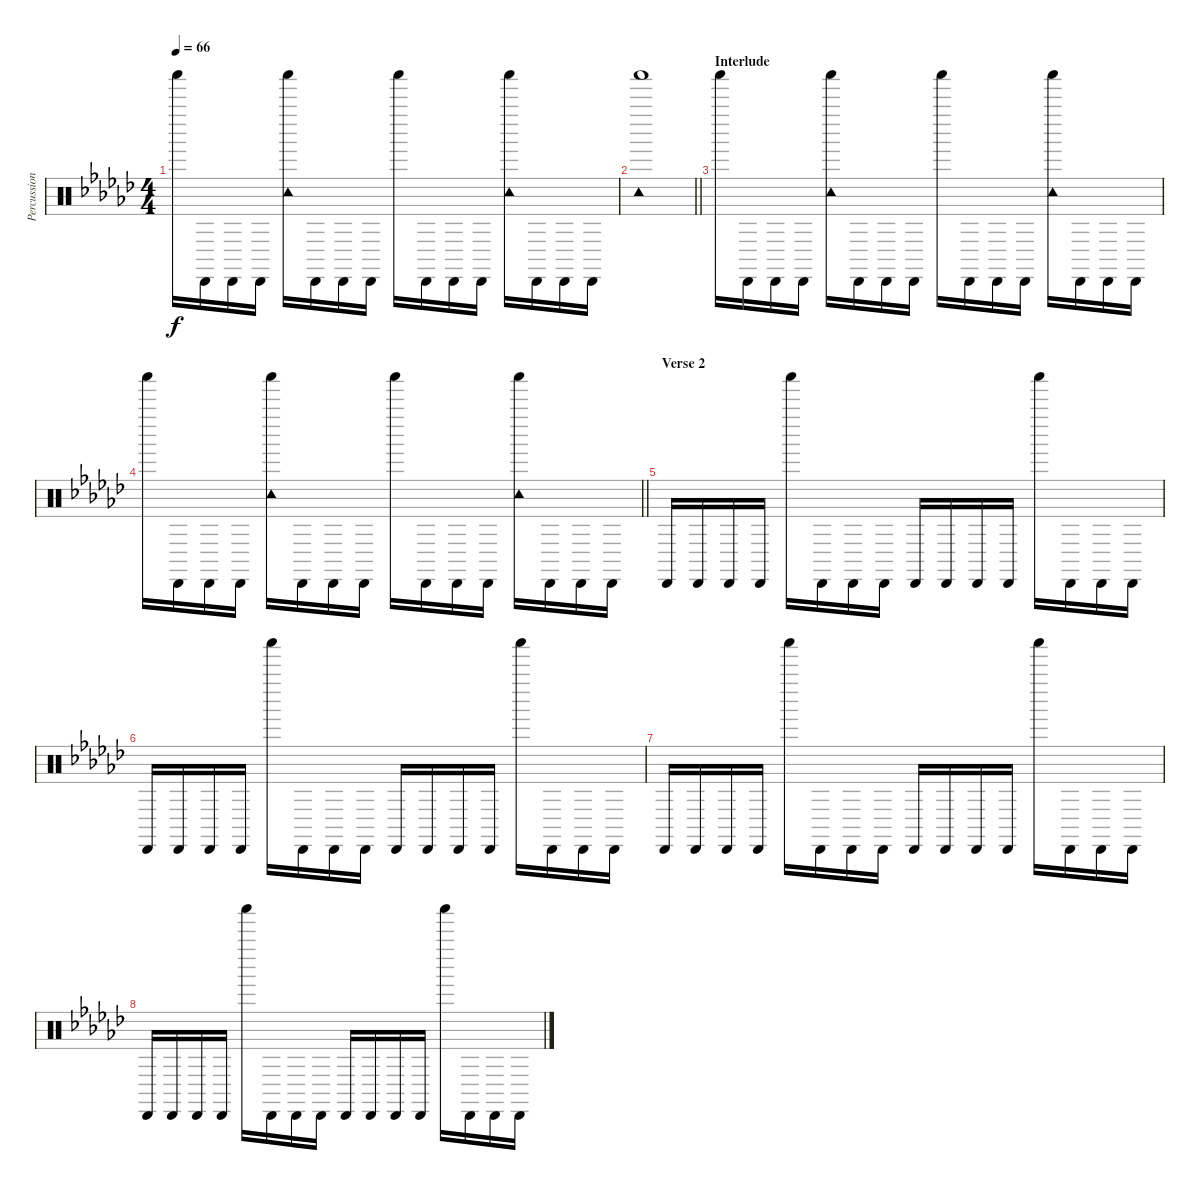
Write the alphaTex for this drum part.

\track ("Percussion" "Percussion") {instrument percussion}
\staff {score}
\articulation defaults
\ts (4 4)
\tempo 66
\clef neutral
\ks gb "Shaker (hit)".16{dy f} "Cabasa (hit)".16 "Cabasa (hit)".16 "Cabasa (hit)".16
("Shaker (hit)" "Tambourine (hit)").16 "Cabasa (hit)".16 "Cabasa (hit)".16 "Cabasa (hit)".16 "Shaker (hit)".16 "Cabasa (hit)".16 "Cabasa (hit)".16 "Cabasa (hit)".16 ("Shaker (hit)" "Tambourine (hit)").16 "Cabasa (hit)".16 "Cabasa (hit)".16 "Cabasa (hit)".16 |
\barLineRight lightlight
("Shaker (hit)" "Tambourine (hit)").1 |
\section ("" "Interlude")
"Shaker (hit)".16 "Cabasa (hit)".16 "Cabasa (hit)".16 "Cabasa (hit)".16 ("Shaker (hit)" "Tambourine (hit)").16 "Cabasa (hit)".16 "Cabasa (hit)".16 "Cabasa (hit)".16 "Shaker (hit)".16 "Cabasa (hit)".16 "Cabasa (hit)".16 "Cabasa (hit)".16 ("Shaker (hit)" "Tambourine (hit)").16 "Cabasa (hit)".16 "Cabasa (hit)".16 "Cabasa (hit)".16 |
\barLineRight lightlight "Shaker (hit)".16 "Cabasa (hit)".16 "Cabasa (hit)".16 "Cabasa (hit)".16
("Shaker (hit)" "Tambourine (hit)").16 "Cabasa (hit)".16 "Cabasa (hit)".16 "Cabasa (hit)".16 "Shaker (hit)".16 "Cabasa (hit)".16 "Cabasa (hit)".16 "Cabasa (hit)".16 ("Shaker (hit)" "Tambourine (hit)").16 "Cabasa (hit)".16 "Cabasa (hit)".16 "Cabasa (hit)".16 |
\section ("" "Verse 2")
"Cabasa (hit)".16 "Cabasa (hit)".16 "Cabasa (hit)".16 "Cabasa (hit)".16 "Shaker (hit)".16 "Cabasa (hit)".16 "Cabasa (hit)".16 "Cabasa (hit)".16 "Cabasa (hit)".16 "Cabasa (hit)".16 "Cabasa (hit)".16 "Cabasa (hit)".16 "Shaker (hit)".16 "Cabasa (hit)".16 "Cabasa (hit)".16 "Cabasa (hit)".16 |
"Cabasa (hit)".16 "Cabasa (hit)".16 "Cabasa (hit)".16 "Cabasa (hit)".16 "Shaker (hit)".16 "Cabasa (hit)".16 "Cabasa (hit)".16 "Cabasa (hit)".16 "Cabasa (hit)".16 "Cabasa (hit)".16 "Cabasa (hit)".16 "Cabasa (hit)".16 "Shaker (hit)".16 "Cabasa (hit)".16 "Cabasa (hit)".16 "Cabasa (hit)".16 |
"Cabasa (hit)".16 "Cabasa (hit)".16 "Cabasa (hit)".16 "Cabasa (hit)".16 "Shaker (hit)".16 "Cabasa (hit)".16 "Cabasa (hit)".16 "Cabasa (hit)".16 "Cabasa (hit)".16 "Cabasa (hit)".16 "Cabasa (hit)".16 "Cabasa (hit)".16 "Shaker (hit)".16 "Cabasa (hit)".16 "Cabasa (hit)".16 "Cabasa (hit)".16 |
"Cabasa (hit)".16 "Cabasa (hit)".16 "Cabasa (hit)".16 "Cabasa (hit)".16 "Shaker (hit)".16 "Cabasa (hit)".16 "Cabasa (hit)".16 "Cabasa (hit)".16 "Cabasa (hit)".16 "Cabasa (hit)".16 "Cabasa (hit)".16 "Cabasa (hit)".16 "Shaker (hit)".16 "Cabasa (hit)".16 "Cabasa (hit)".16 "Cabasa (hit)".16
